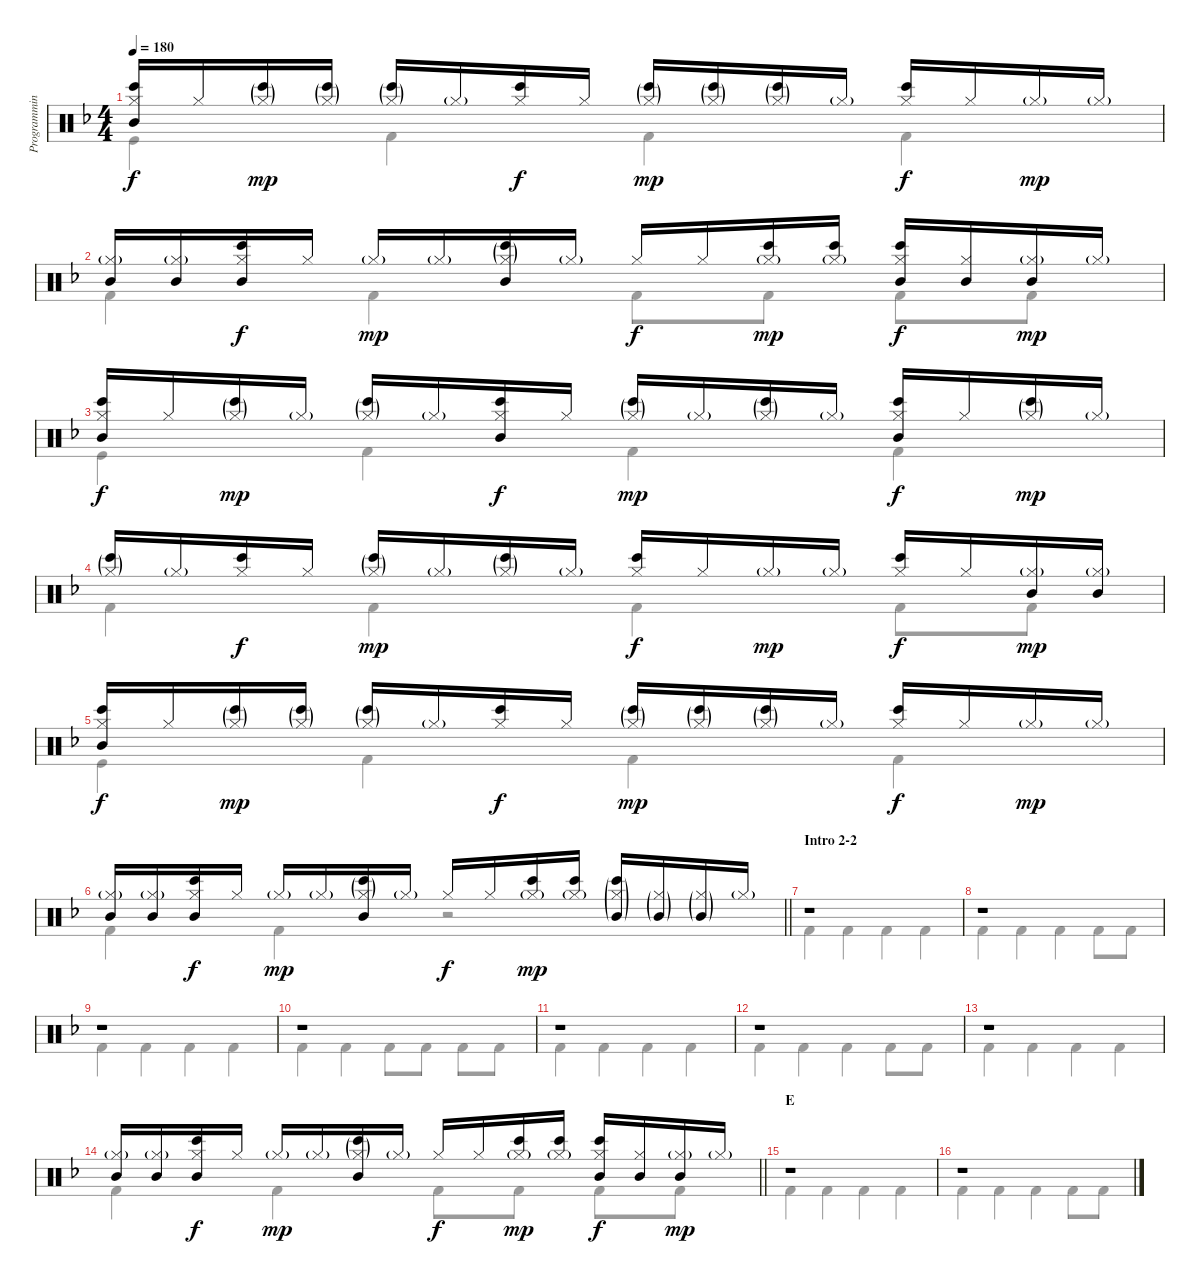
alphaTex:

\track ("Programming" "Programmin") {instrument percussion}
\staff {score}
\articulation defaults
\voice
\ts (4 4)
\tempo 180
\clef neutral
\ks f
("Hi-Hat (closed)" "Bongo High (hit)" "Mid Tom (hit)").16{dy f} "Hi-Hat (closed)".16 ("Hi-Hat (closed)"{g} "Bongo High (hit)"{g}).16{dy mp} ("Hi-Hat (closed)"{g} "Bongo High (hit)"{g}).16 ("Hi-Hat (closed)"{g} "Bongo High (hit)"{g}).16 "Hi-Hat (closed)"{g}.16 ("Hi-Hat (closed)" "Bongo High (hit)").16{dy f} "Hi-Hat (closed)".16 ("Hi-Hat (closed)"{g} "Bongo High (hit)"{g}).16{dy mp} ("Hi-Hat (closed)"{g} "Bongo High (hit)"{g}).16 ("Hi-Hat (closed)"{g} "Bongo High (hit)"{g}).16 "Hi-Hat (closed)"{g}.16 ("Hi-Hat (closed)" "Bongo High (hit)").16{dy f} "Hi-Hat (closed)".16 "Hi-Hat (closed)"{g}.16{dy mp} "Hi-Hat (closed)"{g}.16 |
("Hi-Hat (closed)"{g} "Mid Tom (hit)").16 ("Hi-Hat (closed)"{g} "Mid Tom (hit)").16 ("Hi-Hat (closed)" "Bongo High (hit)" "Mid Tom (hit)").16{dy f} "Hi-Hat (closed)".16 "Hi-Hat (closed)"{g}.16{dy mp} "Hi-Hat (closed)"{g}.16 ("Hi-Hat (closed)"{g} "Bongo High (hit)"{g} "Mid Tom (hit)").16 "Hi-Hat (closed)"{g}.16 "Hi-Hat (closed)".16{dy f} "Hi-Hat (closed)".16 ("Hi-Hat (closed)"{g} "Bongo High (hit)").16{dy mp} ("Hi-Hat (closed)"{g} "Bongo High (hit)").16 ("Hi-Hat (closed)" "Bongo High (hit)" "Mid Tom (hit)").16{dy f} ("Hi-Hat (closed)" "Mid Tom (hit)").16 ("Hi-Hat (closed)"{g} "Mid Tom (hit)").16{dy mp} "Hi-Hat (closed)"{g}.16 |
("Hi-Hat (closed)" "Bongo High (hit)" "Mid Tom (hit)").16{dy f} "Hi-Hat (closed)".16 ("Hi-Hat (closed)"{g} "Bongo High (hit)"{g}).16{dy mp} "Hi-Hat (closed)"{g}.16 ("Hi-Hat (closed)"{g} "Bongo High (hit)"{g}).16 "Hi-Hat (closed)"{g}.16 ("Hi-Hat (closed)" "Bongo High (hit)" "Mid Tom (hit)").16{dy f} "Hi-Hat (closed)".16 ("Hi-Hat (closed)"{g} "Bongo High (hit)"{g}).16{dy mp} "Hi-Hat (closed)"{g}.16 ("Hi-Hat (closed)"{g} "Bongo High (hit)"{g}).16 "Hi-Hat (closed)"{g}.16 ("Hi-Hat (closed)" "Bongo High (hit)" "Mid Tom (hit)").16{dy f} "Hi-Hat (closed)".16 ("Hi-Hat (closed)"{g} "Bongo High (hit)"{g}).16{dy mp} "Hi-Hat (closed)"{g}.16 |
("Hi-Hat (closed)"{g} "Bongo High (hit)"{g}).16 "Hi-Hat (closed)"{g}.16 ("Hi-Hat (closed)" "Bongo High (hit)").16{dy f} "Hi-Hat (closed)".16 ("Hi-Hat (closed)"{g} "Bongo High (hit)"{g}).16{dy mp} "Hi-Hat (closed)"{g}.16 ("Hi-Hat (closed)"{g} "Bongo High (hit)"{g}).16 "Hi-Hat (closed)"{g}.16 ("Hi-Hat (closed)" "Bongo High (hit)").16{dy f} "Hi-Hat (closed)".16 "Hi-Hat (closed)"{g}.16{dy mp} "Hi-Hat (closed)"{g}.16 ("Hi-Hat (closed)" "Bongo High (hit)").16{dy f} "Hi-Hat (closed)".16 ("Hi-Hat (closed)"{g} "Mid Tom (hit)").16{dy mp} ("Hi-Hat (closed)"{g} "Mid Tom (hit)").16 |
("Hi-Hat (closed)" "Bongo High (hit)" "Mid Tom (hit)").16{dy f} "Hi-Hat (closed)".16 ("Hi-Hat (closed)"{g} "Bongo High (hit)"{g}).16{dy mp} ("Hi-Hat (closed)"{g} "Bongo High (hit)"{g}).16 ("Hi-Hat (closed)"{g} "Bongo High (hit)"{g}).16 "Hi-Hat (closed)"{g}.16 ("Hi-Hat (closed)" "Bongo High (hit)").16{dy f} "Hi-Hat (closed)".16 ("Hi-Hat (closed)"{g} "Bongo High (hit)"{g}).16{dy mp} ("Hi-Hat (closed)"{g} "Bongo High (hit)"{g}).16 ("Hi-Hat (closed)"{g} "Bongo High (hit)"{g}).16 "Hi-Hat (closed)"{g}.16 ("Hi-Hat (closed)" "Bongo High (hit)").16{dy f} "Hi-Hat (closed)".16 "Hi-Hat (closed)"{g}.16{dy mp} "Hi-Hat (closed)"{g}.16 |
\barLineRight lightlight
("Hi-Hat (closed)"{g} "Mid Tom (hit)").16 ("Hi-Hat (closed)"{g} "Mid Tom (hit)").16 ("Hi-Hat (closed)" "Bongo High (hit)" "Mid Tom (hit)").16{dy f} "Hi-Hat (closed)".16 "Hi-Hat (closed)"{g}.16{dy mp} "Hi-Hat (closed)"{g}.16 ("Hi-Hat (closed)"{g} "Bongo High (hit)"{g} "Mid Tom (hit)").16 "Hi-Hat (closed)"{g}.16 "Hi-Hat (closed)".16{dy f} "Hi-Hat (closed)".16 ("Hi-Hat (closed)"{g} "Bongo High (hit)").16{dy mp} ("Hi-Hat (closed)"{g} "Bongo High (hit)").16 ("Hi-Hat (closed)"{g} "Bongo High (hit)"{g} "Mid Tom (hit)"{g}).16 ("Hi-Hat (closed)"{g} "Mid Tom (hit)"{g}).16 ("Hi-Hat (closed)"{g} "Mid Tom (hit)"{g}).16 "Hi-Hat (closed)"{g}.16 |
\section ("" "Intro 2-2")
r.1 |
r.1 |
r.1 |
r.1 |
r.1 |
r.1 |
r.1 |
\barLineRight lightlight
("Hi-Hat (closed)"{g} "Mid Tom (hit)").16 ("Hi-Hat (closed)"{g} "Mid Tom (hit)").16 ("Hi-Hat (closed)" "Bongo High (hit)" "Mid Tom (hit)").16{dy f} "Hi-Hat (closed)".16 "Hi-Hat (closed)"{g}.16{dy mp} "Hi-Hat (closed)"{g}.16 ("Hi-Hat (closed)"{g} "Bongo High (hit)"{g} "Mid Tom (hit)").16 "Hi-Hat (closed)"{g}.16 "Hi-Hat (closed)".16{dy f} "Hi-Hat (closed)".16 ("Hi-Hat (closed)"{g} "Bongo High (hit)").16{dy mp} ("Hi-Hat (closed)"{g} "Bongo High (hit)").16 ("Hi-Hat (closed)" "Bongo High (hit)" "Mid Tom (hit)").16{dy f} ("Hi-Hat (closed)" "Mid Tom (hit)").16 ("Hi-Hat (closed)"{g} "Mid Tom (hit)").16{dy mp} "Hi-Hat (closed)"{g}.16 |
\section ("" "E")
r.1 |
r.1
\voice
\clef neutral
\ottava regular
\simile none
\ks f "Kick (hit)".4{dy f} "Kick (hit) 2".4 "Kick (hit) 2".4 "Kick (hit) 2".4
|
"Kick (hit) 2".4 "Kick (hit) 2".4 "Kick (hit) 2".8 "Kick (hit) 2".8 "Kick (hit) 2".8 "Kick (hit) 2".8 |
"Kick (hit)".4 "Kick (hit) 2".4 "Kick (hit) 2".4 "Kick (hit) 2".4 |
"Kick (hit) 2".4 "Kick (hit) 2".4 "Kick (hit) 2".4 "Kick (hit) 2".8 "Kick (hit) 2".8 |
"Kick (hit)".4 "Kick (hit) 2".4 "Kick (hit) 2".4 "Kick (hit) 2".4 |
\barLineRight lightlight "Kick (hit) 2".4 "Kick (hit) 2".4
r.2 |
"Kick (hit) 2".4 "Kick (hit) 2".4 "Kick (hit) 2".4 "Kick (hit) 2".4 |
"Kick (hit) 2".4 "Kick (hit) 2".4 "Kick (hit) 2".4 "Kick (hit) 2".8 "Kick (hit) 2".8 |
"Kick (hit) 2".4 "Kick (hit) 2".4 "Kick (hit) 2".4 "Kick (hit) 2".4 |
"Kick (hit) 2".4 "Kick (hit) 2".4 "Kick (hit) 2".8 "Kick (hit) 2".8 "Kick (hit) 2".8 "Kick (hit) 2".8 |
"Kick (hit) 2".4 "Kick (hit) 2".4 "Kick (hit) 2".4 "Kick (hit) 2".4 |
"Kick (hit) 2".4 "Kick (hit) 2".4 "Kick (hit) 2".4 "Kick (hit) 2".8 "Kick (hit) 2".8 |
"Kick (hit) 2".4 "Kick (hit) 2".4 "Kick (hit) 2".4 "Kick (hit) 2".4 |
\barLineRight lightlight "Kick (hit) 2".4 "Kick (hit) 2".4 "Kick (hit) 2".8 "Kick (hit) 2".8 "Kick (hit) 2".8 "Kick (hit) 2".8
|
"Kick (hit) 2".4 "Kick (hit) 2".4 "Kick (hit) 2".4 "Kick (hit) 2".4 |
"Kick (hit) 2".4 "Kick (hit) 2".4 "Kick (hit) 2".4 "Kick (hit) 2".8 "Kick (hit) 2".8
